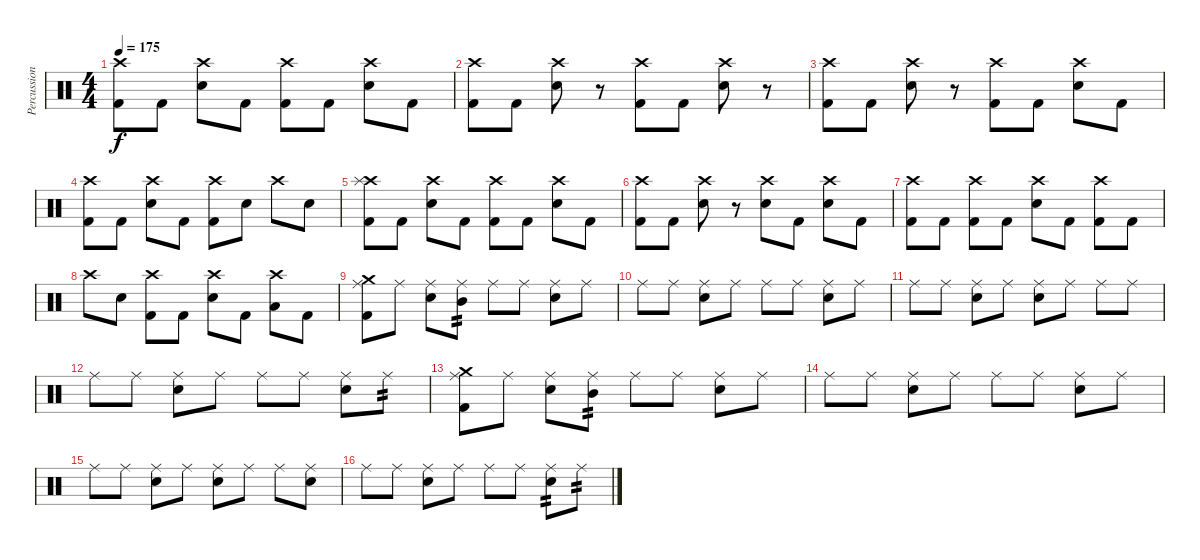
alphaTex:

\track ("Percussion" "Percussion") {instrument percussion bank 177}
\staff {score}
\articulation defaults
\ts (4 4)
\tempo 175
\clef neutral
\ks c
("Crash high (hit)" "Kick (hit) 2").8{dy f} "Kick (hit) 2".8 ("Crash high (hit)" "Electric Snare (hit)").8 "Kick (hit) 2".8 ("Crash high (hit)" "Kick (hit) 2").8 "Kick (hit) 2".8 ("Crash high (hit)" "Electric Snare (hit)").8 "Kick (hit) 2".8 |
("Crash high (hit)" "Kick (hit) 2").8 "Kick (hit) 2".8 ("Crash high (hit)" "Electric Snare (hit)").8 r.8 ("Crash high (hit)" "Kick (hit) 2").8 "Kick (hit) 2".8 ("Crash high (hit)" "Electric Snare (hit)").8 r.8 |
("Crash high (hit)" "Kick (hit) 2").8 "Kick (hit) 2".8 ("Crash high (hit)" "Electric Snare (hit)").8 r.8 ("Crash high (hit)" "Kick (hit) 2").8 "Kick (hit) 2".8 ("Crash high (hit)" "Electric Snare (hit)").8 "Kick (hit) 2".8 |
("Crash high (hit)" "Kick (hit) 2").8 "Kick (hit) 2".8 ("Crash high (hit)" "Electric Snare (hit)").8 "Kick (hit) 2".8 ("Crash high (hit)" "Kick (hit) 2").8 "Electric Snare (hit)".8 "Crash high (hit)".8 "Electric Snare (hit)".8 |
("Crash high (hit)" "Splash (hit)" "Kick (hit) 2").8 "Kick (hit) 2".8 ("Crash high (hit)" "Electric Snare (hit)").8 "Kick (hit) 2".8 ("Crash high (hit)" "Kick (hit) 2").8 "Kick (hit) 2".8 ("Crash high (hit)" "Electric Snare (hit)").8 "Kick (hit) 2".8 |
("Crash high (hit)" "Kick (hit) 2").8 "Kick (hit) 2".8 ("Crash high (hit)" "Electric Snare (hit)").8 r.8 ("Crash high (hit)" "Electric Snare (hit)").8 "Kick (hit) 2".8 ("Crash high (hit)" "Electric Snare (hit)").8 "Kick (hit) 2".8 |
("Crash high (hit)" "Kick (hit) 2").8 "Kick (hit) 2".8 ("Crash high (hit)" "Kick (hit) 2").8 "Kick (hit) 2".8 ("Crash high (hit)" "Electric Snare (hit)").8 "Kick (hit) 2".8 ("Crash high (hit)" "Kick (hit) 2").8 "Kick (hit) 2".8 |
"Crash high (hit)".8 "Electric Snare (hit)".8 ("Crash high (hit)" "Kick (hit) 2").8 "Kick (hit) 2".8 ("Crash high (hit)" "Electric Snare (hit)").8 "Kick (hit) 2".8 ("Crash high (hit)" "Low Tom (hit)").8 "Kick (hit) 2".8 |
("Ride (middle)" "Crash medium (hit)" "Kick (hit) 2").8 "Ride (middle)".8 ("Ride (middle)" "Electric Snare (hit)").8 ("Ride (middle)" "Mid Tom (hit)").8{tp 2} "Ride (middle)".8 "Ride (middle)".8 ("Ride (middle)" "Electric Snare (hit)").8 "Ride (middle)".8 |
"Ride (middle)".8 "Ride (middle)".8 ("Ride (middle)" "Electric Snare (hit)").8 "Ride (middle)".8 "Ride (middle)".8 "Ride (middle)".8 ("Ride (middle)" "Electric Snare (hit)").8 "Ride (middle)".8 |
"Ride (middle)".8 "Ride (middle)".8 ("Ride (middle)" "Electric Snare (hit)").8 "Ride (middle)".8 ("Ride (middle)" "Electric Snare (hit)").8 "Ride (middle)".8 "Ride (middle)".8 "Ride (middle)".8 |
"Ride (middle)".8 "Ride (middle)".8 ("Ride (middle)" "Electric Snare (hit)").8 "Ride (middle)".8 "Ride (middle)".8 "Ride (middle)".8 ("Ride (middle)" "Electric Snare (hit)").8 "Ride (middle)".8{tp 2} |
("Ride (middle)" "Crash medium (hit)" "Kick (hit) 2").8 "Ride (middle)".8 ("Ride (middle)" "Electric Snare (hit)").8 ("Ride (middle)" "Mid Tom (hit)").8{tp 2} "Ride (middle)".8 "Ride (middle)".8 ("Ride (middle)" "Electric Snare (hit)").8 "Ride (middle)".8 |
"Ride (middle)".8 "Ride (middle)".8 ("Ride (middle)" "Electric Snare (hit)").8 "Ride (middle)".8 "Ride (middle)".8 "Ride (middle)".8 ("Ride (middle)" "Electric Snare (hit)").8 "Ride (middle)".8 |
"Ride (middle)".8 "Ride (middle)".8 ("Ride (middle)" "Electric Snare (hit)").8 "Ride (middle)".8 ("Ride (middle)" "Electric Snare (hit)").8 "Ride (middle)".8 "Ride (middle)".8 ("Ride (middle)" "Electric Snare (hit)").8 |
"Ride (middle)".8 "Ride (middle)".8 ("Ride (middle)" "Electric Snare (hit)").8 "Ride (middle)".8 "Ride (middle)".8 "Ride (middle)".8 ("Ride (middle)" "Electric Snare (hit)").8{tp 2} "Ride (middle)".8{tp 2}
